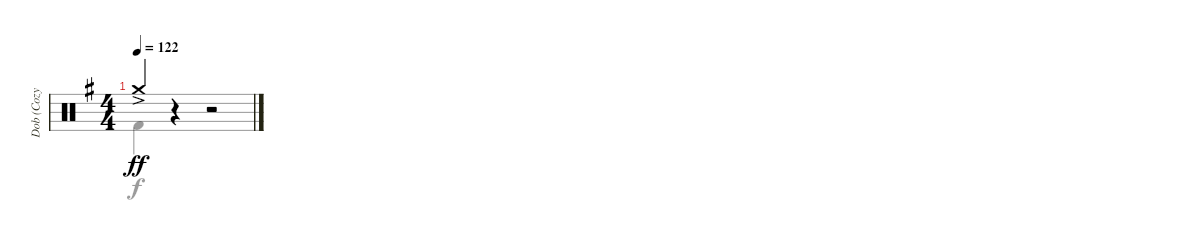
\track ("Dob (Cozy Powell)" "Dob (Cozy ") {instrument percussion}
\staff {score}
\articulation defaults
\voice
\ts (4 4)
\tempo 122
\clef neutral
\ks g "Crash medium (hit)"{ac}.4{dy ff}
r.4 r.2 |
\voice
\clef neutral
\ottava regular
\simile none
\ks g "Kick (hit) 2".4{dy f}
r.4 r.2 |
